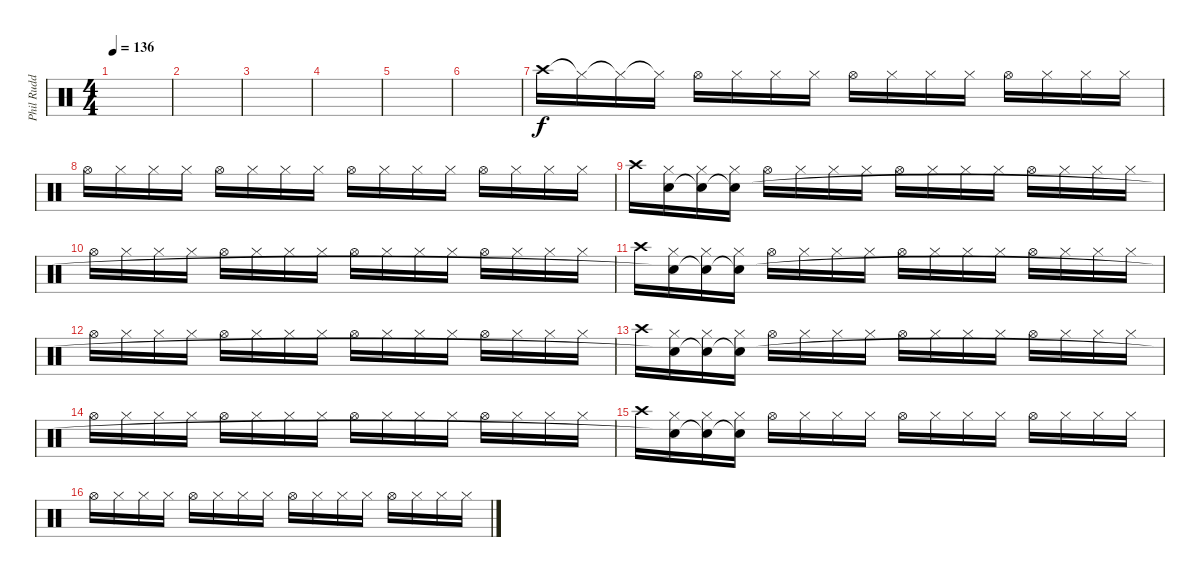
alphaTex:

\track ("Phil Rudd" "Phil Rudd") {instrument percussion}
\staff {score}
\articulation defaults
\ts (4 4)
\tempo 136
\clef neutral
\ks c
|
|
|
|
|
|
"Crash high (hit)".16 "Hi-Hat (closed)"{t}.16 "Hi-Hat (closed)"{t}.16 "Hi-Hat (closed)"{t}.16 "Hi-Hat (open)".16 "Hi-Hat (closed)".16 "Hi-Hat (closed)".16 "Hi-Hat (closed)".16 "Hi-Hat (open)".16 "Hi-Hat (closed)".16 "Hi-Hat (closed)".16 "Hi-Hat (closed)".16 "Hi-Hat (open)".16 "Hi-Hat (closed)".16 "Hi-Hat (closed)".16 "Hi-Hat (closed)".16 |
"Hi-Hat (open)".16 "Hi-Hat (closed)".16 "Hi-Hat (closed)".16 "Hi-Hat (closed)".16 "Hi-Hat (open)".16 "Hi-Hat (closed)".16 "Hi-Hat (closed)".16 "Hi-Hat (closed)".16 "Hi-Hat (open)".16 "Hi-Hat (closed)".16 "Hi-Hat (closed)".16 "Hi-Hat (closed)".16 "Hi-Hat (open)".16 "Hi-Hat (closed)".16 "Hi-Hat (closed)".16 "Hi-Hat (closed)".16 |
"Crash high (hit)".16 ("Hi-Hat (closed)" "Snare (hit)").16 ("Hi-Hat (closed)" "Snare (hit)"{t}).16 ("Hi-Hat (closed)" "Snare (hit)"{t}).16 "Hi-Hat (open)".16 "Hi-Hat (closed)".16 "Hi-Hat (closed)".16 "Hi-Hat (closed)".16 "Hi-Hat (open)".16 "Hi-Hat (closed)".16 "Hi-Hat (closed)".16 "Hi-Hat (closed)".16 "Hi-Hat (open)".16 "Hi-Hat (closed)".16 "Hi-Hat (closed)".16 "Hi-Hat (closed)".16 |
"Hi-Hat (open)".16 "Hi-Hat (closed)".16 "Hi-Hat (closed)".16 "Hi-Hat (closed)".16 "Hi-Hat (open)".16 "Hi-Hat (closed)".16 "Hi-Hat (closed)".16 "Hi-Hat (closed)".16 "Hi-Hat (open)".16 "Hi-Hat (closed)".16 "Hi-Hat (closed)".16 "Hi-Hat (closed)".16 "Hi-Hat (open)".16 "Hi-Hat (closed)".16 "Hi-Hat (closed)".16 "Hi-Hat (closed)".16 |
"Crash high (hit)".16 ("Hi-Hat (closed)" "Snare (hit)"{t}).16 ("Hi-Hat (closed)" "Snare (hit)"{t}).16 ("Hi-Hat (closed)" "Snare (hit)"{t}).16 "Hi-Hat (open)".16 "Hi-Hat (closed)".16 "Hi-Hat (closed)".16 "Hi-Hat (closed)".16 "Hi-Hat (open)".16 "Hi-Hat (closed)".16 "Hi-Hat (closed)".16 "Hi-Hat (closed)".16 "Hi-Hat (open)".16 "Hi-Hat (closed)".16 "Hi-Hat (closed)".16 "Hi-Hat (closed)".16 |
"Hi-Hat (open)".16 "Hi-Hat (closed)".16 "Hi-Hat (closed)".16 "Hi-Hat (closed)".16 "Hi-Hat (open)".16 "Hi-Hat (closed)".16 "Hi-Hat (closed)".16 "Hi-Hat (closed)".16 "Hi-Hat (open)".16 "Hi-Hat (closed)".16 "Hi-Hat (closed)".16 "Hi-Hat (closed)".16 "Hi-Hat (open)".16 "Hi-Hat (closed)".16 "Hi-Hat (closed)".16 "Hi-Hat (closed)".16 |
"Crash high (hit)".16 ("Hi-Hat (closed)" "Snare (hit)"{t}).16 ("Hi-Hat (closed)" "Snare (hit)"{t}).16 ("Hi-Hat (closed)" "Snare (hit)"{t}).16 "Hi-Hat (open)".16 "Hi-Hat (closed)".16 "Hi-Hat (closed)".16 "Hi-Hat (closed)".16 "Hi-Hat (open)".16 "Hi-Hat (closed)".16 "Hi-Hat (closed)".16 "Hi-Hat (closed)".16 "Hi-Hat (open)".16 "Hi-Hat (closed)".16 "Hi-Hat (closed)".16 "Hi-Hat (closed)".16 |
"Hi-Hat (open)".16 "Hi-Hat (closed)".16 "Hi-Hat (closed)".16 "Hi-Hat (closed)".16 "Hi-Hat (open)".16 "Hi-Hat (closed)".16 "Hi-Hat (closed)".16 "Hi-Hat (closed)".16 "Hi-Hat (open)".16 "Hi-Hat (closed)".16 "Hi-Hat (closed)".16 "Hi-Hat (closed)".16 "Hi-Hat (open)".16 "Hi-Hat (closed)".16 "Hi-Hat (closed)".16 "Hi-Hat (closed)".16 |
"Crash high (hit)".16 ("Hi-Hat (closed)" "Snare (hit)"{t}).16 ("Hi-Hat (closed)" "Snare (hit)"{t}).16 ("Hi-Hat (closed)" "Snare (hit)"{t}).16 "Hi-Hat (open)".16 "Hi-Hat (closed)".16 "Hi-Hat (closed)".16 "Hi-Hat (closed)".16 "Hi-Hat (open)".16 "Hi-Hat (closed)".16 "Hi-Hat (closed)".16 "Hi-Hat (closed)".16 "Hi-Hat (open)".16 "Hi-Hat (closed)".16 "Hi-Hat (closed)".16 "Hi-Hat (closed)".16 |
"Hi-Hat (open)".16 "Hi-Hat (closed)".16 "Hi-Hat (closed)".16 "Hi-Hat (closed)".16 "Hi-Hat (open)".16 "Hi-Hat (closed)".16 "Hi-Hat (closed)".16 "Hi-Hat (closed)".16 "Hi-Hat (open)".16 "Hi-Hat (closed)".16 "Hi-Hat (closed)".16 "Hi-Hat (closed)".16 "Hi-Hat (open)".16 "Hi-Hat (closed)".16 "Hi-Hat (closed)".16 "Hi-Hat (closed)".16
